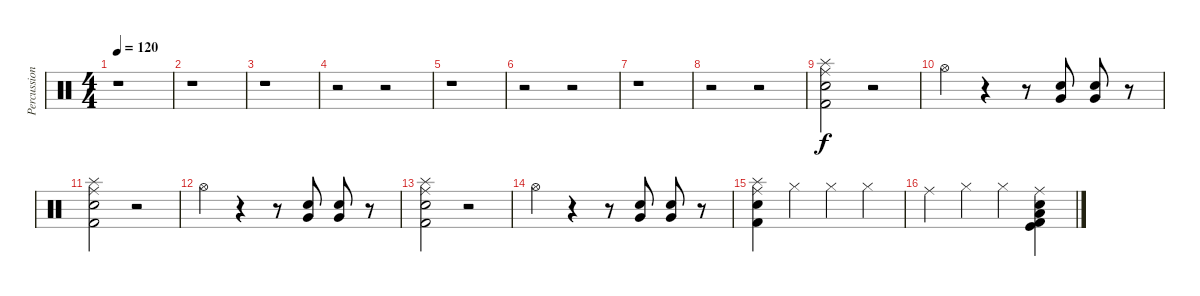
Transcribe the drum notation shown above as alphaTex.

\track ("Percussion" "Percussion") {instrument percussion}
\staff {score}
\articulation defaults
\ts (4 4)
\tempo 120
\clef neutral
\ks c
r.1{dy f} |
r.1 |
r.1 |
r.2 r.2 |
r.1 |
r.2 r.2 |
r.1 |
r.2 r.2 |
("Splash (hit)" "Ride (middle)" "Kick (hit) 2" "Snare (hit) 2").2 r.2 |
"Hi-Hat (open)".4 r.4 r.8 ("Very Low Tom (hit)" "Snare (hit) 2").8 ("Very Low Tom (hit)" "Snare (hit) 2").8 r.8 |
("Splash (hit)" "Ride (middle)" "Kick (hit) 2" "Snare (hit) 2").2 r.2 |
"Hi-Hat (open)".4 r.4 r.8 ("Very Low Tom (hit)" "Snare (hit) 2").8 ("Very Low Tom (hit)" "Snare (hit) 2").8 r.8 |
("Splash (hit)" "Ride (middle)" "Kick (hit) 2" "Snare (hit) 2").2 r.2 |
"Hi-Hat (open)".4 r.4 r.8 ("Very Low Tom (hit)" "Snare (hit) 2").8 ("Very Low Tom (hit)" "Snare (hit) 2").8 r.8 |
("Splash (hit)" "Ride (middle)" "Kick (hit) 2" "Snare (hit) 2").4 "Hi-Hat (closed)".4 "Hi-Hat (closed)".4 "Hi-Hat (closed)".4 |
"Ride (middle)".4 "Hi-Hat (closed)".4 "Hi-Hat (closed)".4 ("Kick (hit)" "Ride (middle)" "Kick (hit) 2" "Low Floor Tom (hit)" "Snare (hit) 2").4
